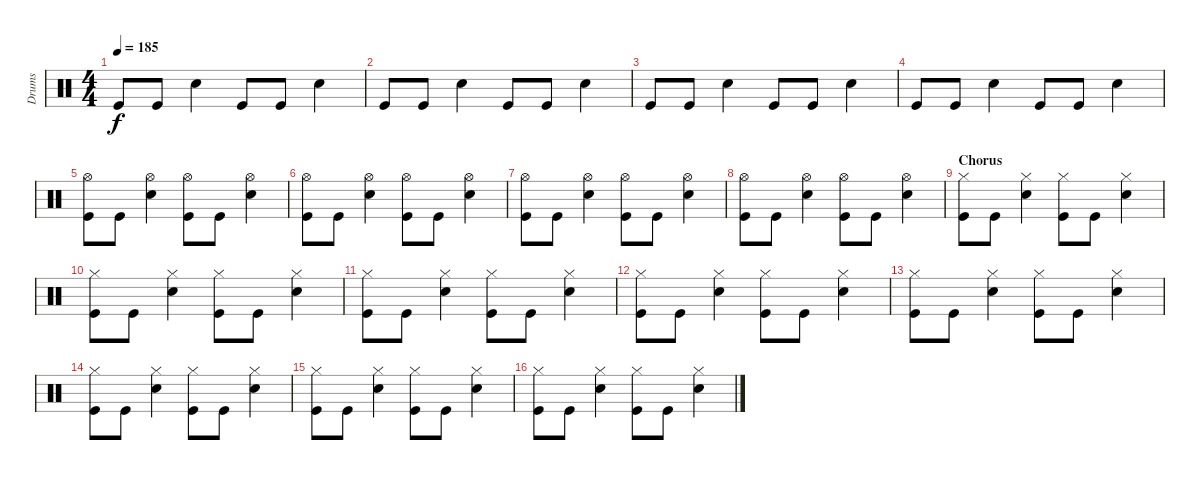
\track ("Drums" "Drums") {instrument percussion}
\staff {score}
\articulation defaults
\ts (4 4)
\tempo 185
\clef neutral
\ks c "Kick (hit)".8{dy f} "Kick (hit)".8 "Electric Snare (hit)".4 "Kick (hit)".8 "Kick (hit)".8 "Electric Snare (hit)".4
|
"Kick (hit)".8 "Kick (hit)".8 "Electric Snare (hit)".4 "Kick (hit)".8 "Kick (hit)".8 "Electric Snare (hit)".4 |
"Kick (hit)".8 "Kick (hit)".8 "Electric Snare (hit)".4 "Kick (hit)".8 "Kick (hit)".8 "Electric Snare (hit)".4 |
"Kick (hit)".8 "Kick (hit)".8 "Electric Snare (hit)".4 "Kick (hit)".8 "Kick (hit)".8 "Electric Snare (hit)".4 |
("Kick (hit)" "Hi-Hat (open)").8 "Kick (hit)".8 ("Electric Snare (hit)" "Hi-Hat (open)").4 ("Kick (hit)" "Hi-Hat (open)").8 "Kick (hit)".8 ("Electric Snare (hit)" "Hi-Hat (open)").4 |
("Kick (hit)" "Hi-Hat (open)").8 "Kick (hit)".8 ("Electric Snare (hit)" "Hi-Hat (open)").4 ("Kick (hit)" "Hi-Hat (open)").8 "Kick (hit)".8 ("Electric Snare (hit)" "Hi-Hat (open)").4 |
("Kick (hit)" "Hi-Hat (open)").8 "Kick (hit)".8 ("Electric Snare (hit)" "Hi-Hat (open)").4 ("Kick (hit)" "Hi-Hat (open)").8 "Kick (hit)".8 ("Electric Snare (hit)" "Hi-Hat (open)").4 |
("Kick (hit)" "Hi-Hat (open)").8 "Kick (hit)".8 ("Electric Snare (hit)" "Hi-Hat (open)").4 ("Kick (hit)" "Hi-Hat (open)").8 "Kick (hit)".8 ("Electric Snare (hit)" "Hi-Hat (open)").4 |
\section ("" "Chorus")
("Kick (hit)" "Hi-Hat (closed)").8 "Kick (hit)".8 ("Electric Snare (hit)" "Hi-Hat (closed)").4 ("Kick (hit)" "Hi-Hat (closed)").8 "Kick (hit)".8 ("Electric Snare (hit)" "Hi-Hat (closed)").4 |
("Kick (hit)" "Hi-Hat (closed)").8 "Kick (hit)".8 ("Electric Snare (hit)" "Hi-Hat (closed)").4 ("Kick (hit)" "Hi-Hat (closed)").8 "Kick (hit)".8 ("Electric Snare (hit)" "Hi-Hat (closed)").4 |
("Kick (hit)" "Hi-Hat (closed)").8 "Kick (hit)".8 ("Electric Snare (hit)" "Hi-Hat (closed)").4 ("Kick (hit)" "Hi-Hat (closed)").8 "Kick (hit)".8 ("Electric Snare (hit)" "Hi-Hat (closed)").4 |
("Kick (hit)" "Hi-Hat (closed)").8 "Kick (hit)".8 ("Electric Snare (hit)" "Hi-Hat (closed)").4 ("Kick (hit)" "Hi-Hat (closed)").8 "Kick (hit)".8 ("Electric Snare (hit)" "Hi-Hat (closed)").4 |
("Kick (hit)" "Hi-Hat (closed)").8 "Kick (hit)".8 ("Electric Snare (hit)" "Hi-Hat (closed)").4 ("Kick (hit)" "Hi-Hat (closed)").8 "Kick (hit)".8 ("Electric Snare (hit)" "Hi-Hat (closed)").4 |
("Kick (hit)" "Hi-Hat (closed)").8 "Kick (hit)".8 ("Electric Snare (hit)" "Hi-Hat (closed)").4 ("Kick (hit)" "Hi-Hat (closed)").8 "Kick (hit)".8 ("Electric Snare (hit)" "Hi-Hat (closed)").4 |
("Kick (hit)" "Hi-Hat (closed)").8 "Kick (hit)".8 ("Electric Snare (hit)" "Hi-Hat (closed)").4 ("Kick (hit)" "Hi-Hat (closed)").8 "Kick (hit)".8 ("Electric Snare (hit)" "Hi-Hat (closed)").4 |
("Kick (hit)" "Hi-Hat (closed)").8 "Kick (hit)".8 ("Electric Snare (hit)" "Hi-Hat (closed)").4 ("Kick (hit)" "Hi-Hat (closed)").8 "Kick (hit)".8 ("Electric Snare (hit)" "Hi-Hat (closed)").4
